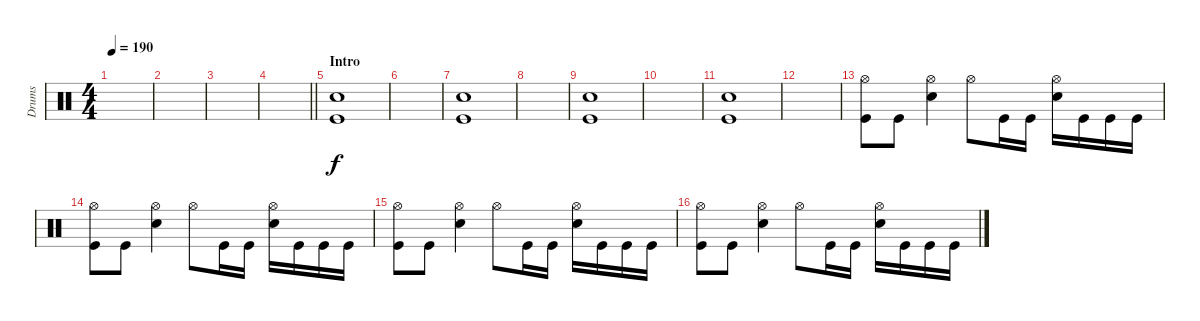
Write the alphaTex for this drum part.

\track ("Drums" "Drums") {instrument percussion}
\staff {score}
\articulation defaults
\ts (4 4)
\tempo 190
\clef neutral
\ks c
|
|
|
\barLineRight lightlight
|
\section ("" "Intro")
("Snare (hit) 2" "Kick (hit)").1 |
|
("Snare (hit) 2" "Kick (hit)").1 |
|
("Snare (hit) 2" "Kick (hit)").1 |
|
("Snare (hit) 2" "Kick (hit)").1 |
|
("Hi-Hat (open)" "Kick (hit)").8 "Kick (hit)".8 ("Hi-Hat (open)" "Snare (hit) 2").4 "Hi-Hat (open)".8 "Kick (hit)".16 "Kick (hit)".16 ("Hi-Hat (open)" "Snare (hit) 2").16 "Kick (hit)".16 "Kick (hit)".16 "Kick (hit)".16 |
("Hi-Hat (open)" "Kick (hit)").8 "Kick (hit)".8 ("Hi-Hat (open)" "Snare (hit) 2").4 "Hi-Hat (open)".8 "Kick (hit)".16 "Kick (hit)".16 ("Hi-Hat (open)" "Snare (hit) 2").16 "Kick (hit)".16 "Kick (hit)".16 "Kick (hit)".16 |
("Hi-Hat (open)" "Kick (hit)").8 "Kick (hit)".8 ("Hi-Hat (open)" "Snare (hit) 2").4 "Hi-Hat (open)".8 "Kick (hit)".16 "Kick (hit)".16 ("Hi-Hat (open)" "Snare (hit) 2").16 "Kick (hit)".16 "Kick (hit)".16 "Kick (hit)".16 |
("Hi-Hat (open)" "Kick (hit)").8 "Kick (hit)".8 ("Hi-Hat (open)" "Snare (hit) 2").4 "Hi-Hat (open)".8 "Kick (hit)".16 "Kick (hit)".16 ("Hi-Hat (open)" "Snare (hit) 2").16 "Kick (hit)".16 "Kick (hit)".16 "Kick (hit)".16
